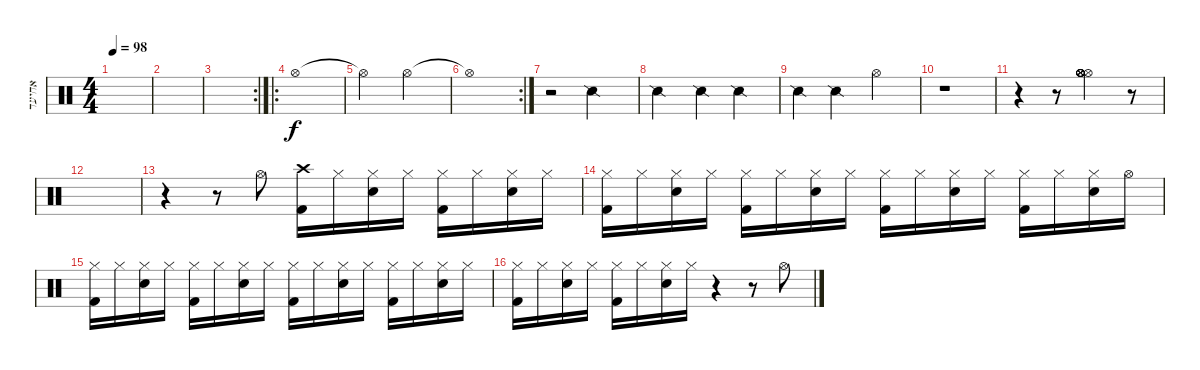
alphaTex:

\track ("אחיעד" "אחיעד") {instrument percussion}
\staff {score}
\articulation defaults
\ts (4 4)
\tempo 98
\clef neutral
\ks c
|
|
\rc 2
|
\ro "Hi-Hat (open)".1
|
"Hi-Hat (open)"{t}.2 "Hi-Hat (open)".2 |
\rc 2 "Hi-Hat (open)"{t}.1
|
r.2 "Snare (side stick) 2".2 |
"Snare (side stick) 2".2 "Snare (side stick) 2".4 "Snare (side stick) 2".4 |
"Snare (side stick) 2".4 "Snare (side stick) 2".4 "Hi-Hat (open)".2 |
r.1 |
r.4 r.8 ("Hi-Hat (open)" "Hi-Hat (open)" "Hi-Hat (open)" "Hi-Hat (open)" "Hi-Hat (open)" "Hi-Hat (open)").2 r.8 |
|
r.4 r.8 "Hi-Hat (open)".8 ("Crash high (hit)" "Kick (hit) 2").16 "Hi-Hat (closed)".16 ("Hi-Hat (closed)" "Snare (hit) 2").16 "Hi-Hat (closed)".16 ("Hi-Hat (closed)" "Kick (hit) 2").16 "Hi-Hat (closed)".16 ("Hi-Hat (closed)" "Snare (hit) 2").16 "Hi-Hat (closed)".16 |
("Hi-Hat (closed)" "Kick (hit) 2").16 "Hi-Hat (closed)".16 ("Hi-Hat (closed)" "Snare (hit) 2").16 "Hi-Hat (closed)".16 ("Hi-Hat (closed)" "Kick (hit) 2").16 "Hi-Hat (closed)".16 ("Hi-Hat (closed)" "Snare (hit) 2").16 "Hi-Hat (closed)".16 ("Hi-Hat (closed)" "Kick (hit) 2").16 "Hi-Hat (closed)".16 ("Hi-Hat (closed)" "Snare (hit) 2").16 "Hi-Hat (closed)".16 ("Hi-Hat (closed)" "Kick (hit) 2").16 "Hi-Hat (closed)".16 ("Hi-Hat (closed)" "Snare (hit) 2").16 "Hi-Hat (open)".16 |
("Hi-Hat (closed)" "Kick (hit) 2").16 "Hi-Hat (closed)".16 ("Hi-Hat (closed)" "Snare (hit) 2").16 "Hi-Hat (closed)".16 ("Hi-Hat (closed)" "Kick (hit) 2").16 "Hi-Hat (closed)".16 ("Hi-Hat (closed)" "Snare (hit) 2").16 "Hi-Hat (closed)".16 ("Hi-Hat (closed)" "Kick (hit) 2").16 "Hi-Hat (closed)".16 ("Hi-Hat (closed)" "Snare (hit) 2").16 "Hi-Hat (closed)".16 ("Hi-Hat (closed)" "Kick (hit) 2").16 "Hi-Hat (closed)".16 ("Hi-Hat (closed)" "Snare (hit) 2").16 "Hi-Hat (closed)".16 |
("Hi-Hat (closed)" "Kick (hit) 2").16 "Hi-Hat (closed)".16 ("Hi-Hat (closed)" "Snare (hit) 2").16 "Hi-Hat (closed)".16 ("Hi-Hat (closed)" "Kick (hit) 2").16 "Hi-Hat (closed)".16 ("Hi-Hat (closed)" "Snare (hit) 2").16 "Hi-Hat (closed)".16 r.4 r.8 "Hi-Hat (open)".8
